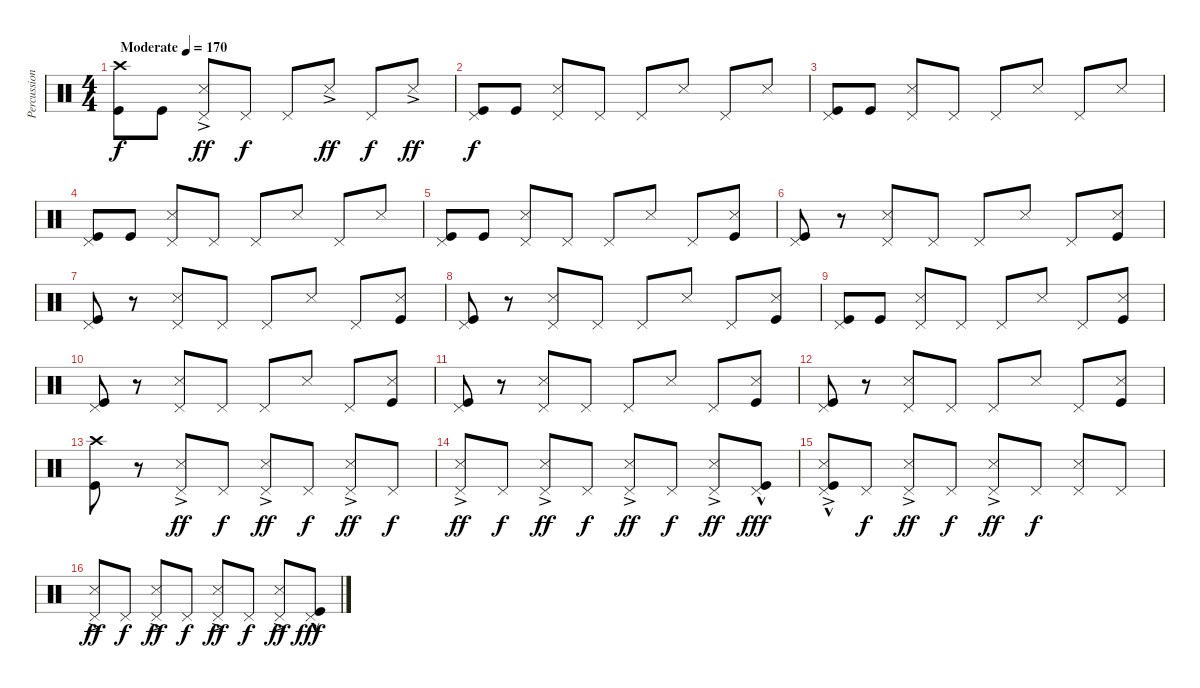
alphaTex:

\track ("Percussion" "Percussion") {instrument percussion}
\staff {score}
\articulation defaults
\ts (4 4)
\tempo (170 "Moderate")
\clef neutral
\ks c
("Crash high (hit)" "Kick (hit)").8{dy f} "Kick (hit)".8 ("Pedal Hi-Hat (hit)" "Snare (side stick) 3"{ac}).8{dy ff} "Pedal Hi-Hat (hit)".8{dy f} "Pedal Hi-Hat (hit)".8 "Snare (side stick) 3"{ac}.8{dy ff} "Pedal Hi-Hat (hit)".8{dy f} "Snare (side stick) 3"{ac}.8{dy ff} |
("Pedal Hi-Hat (hit)" "Kick (hit)").8{dy f} "Kick (hit)".8 ("Pedal Hi-Hat (hit)" "Snare (side stick) 3").8 "Pedal Hi-Hat (hit)".8 "Pedal Hi-Hat (hit)".8 "Snare (side stick) 3".8 "Pedal Hi-Hat (hit)".8 "Snare (side stick) 3".8 |
("Pedal Hi-Hat (hit)" "Kick (hit)").8 "Kick (hit)".8 ("Pedal Hi-Hat (hit)" "Snare (side stick) 3").8 "Pedal Hi-Hat (hit)".8 "Pedal Hi-Hat (hit)".8 "Snare (side stick) 3".8 "Pedal Hi-Hat (hit)".8 "Snare (side stick) 3".8 |
("Pedal Hi-Hat (hit)" "Kick (hit)").8 "Kick (hit)".8 ("Pedal Hi-Hat (hit)" "Snare (side stick) 3").8 "Pedal Hi-Hat (hit)".8 "Pedal Hi-Hat (hit)".8 "Snare (side stick) 3".8 "Pedal Hi-Hat (hit)".8 "Snare (side stick) 3".8 |
("Pedal Hi-Hat (hit)" "Kick (hit)").8 "Kick (hit)".8 ("Pedal Hi-Hat (hit)" "Snare (side stick) 3").8 "Pedal Hi-Hat (hit)".8 "Pedal Hi-Hat (hit)".8 "Snare (side stick) 3".8 "Pedal Hi-Hat (hit)".8 ("Snare (side stick) 3" "Kick (hit)").8 |
("Pedal Hi-Hat (hit)" "Kick (hit)").8 r.8 ("Pedal Hi-Hat (hit)" "Snare (side stick) 3").8 "Pedal Hi-Hat (hit)".8 "Pedal Hi-Hat (hit)".8 "Snare (side stick) 3".8 "Pedal Hi-Hat (hit)".8 ("Snare (side stick) 3" "Kick (hit)").8 |
("Pedal Hi-Hat (hit)" "Kick (hit)").8 r.8 ("Pedal Hi-Hat (hit)" "Snare (side stick) 3").8 "Pedal Hi-Hat (hit)".8 "Pedal Hi-Hat (hit)".8 "Snare (side stick) 3".8 "Pedal Hi-Hat (hit)".8 ("Snare (side stick) 3" "Kick (hit)").8 |
("Pedal Hi-Hat (hit)" "Kick (hit)").8 r.8 ("Pedal Hi-Hat (hit)" "Snare (side stick) 3").8 "Pedal Hi-Hat (hit)".8 "Pedal Hi-Hat (hit)".8 "Snare (side stick) 3".8 "Pedal Hi-Hat (hit)".8 ("Snare (side stick) 3" "Kick (hit)").8 |
("Pedal Hi-Hat (hit)" "Kick (hit)").8 "Kick (hit)".8 ("Pedal Hi-Hat (hit)" "Snare (side stick) 3").8 "Pedal Hi-Hat (hit)".8 "Pedal Hi-Hat (hit)".8 "Snare (side stick) 3".8 "Pedal Hi-Hat (hit)".8 ("Snare (side stick) 3" "Kick (hit)").8 |
("Pedal Hi-Hat (hit)" "Kick (hit)").8 r.8 ("Pedal Hi-Hat (hit)" "Snare (side stick) 3").8 "Pedal Hi-Hat (hit)".8 "Pedal Hi-Hat (hit)".8 "Snare (side stick) 3".8 "Pedal Hi-Hat (hit)".8 ("Snare (side stick) 3" "Kick (hit)").8 |
("Pedal Hi-Hat (hit)" "Kick (hit)").8 r.8 ("Pedal Hi-Hat (hit)" "Snare (side stick) 3").8 "Pedal Hi-Hat (hit)".8 "Pedal Hi-Hat (hit)".8 "Snare (side stick) 3".8 "Pedal Hi-Hat (hit)".8 ("Snare (side stick) 3" "Kick (hit)").8 |
("Pedal Hi-Hat (hit)" "Kick (hit)").8 r.8 ("Pedal Hi-Hat (hit)" "Snare (side stick) 3").8 "Pedal Hi-Hat (hit)".8 "Pedal Hi-Hat (hit)".8 "Snare (side stick) 3".8 "Pedal Hi-Hat (hit)".8 ("Snare (side stick) 3" "Kick (hit)").8 |
("Crash high (hit)" "Kick (hit)").8 r.8 ("Pedal Hi-Hat (hit)" "Snare (side stick) 3"{ac}).8{dy ff} "Pedal Hi-Hat (hit)".8{dy f} ("Pedal Hi-Hat (hit)" "Snare (side stick) 3"{ac}).8{dy ff} "Pedal Hi-Hat (hit)".8{dy f} ("Pedal Hi-Hat (hit)" "Snare (side stick) 3"{ac}).8{dy ff} "Pedal Hi-Hat (hit)".8{dy f} |
("Pedal Hi-Hat (hit)" "Snare (side stick) 3"{ac}).8{dy ff} "Pedal Hi-Hat (hit)".8{dy f} ("Pedal Hi-Hat (hit)" "Snare (side stick) 3"{ac}).8{dy ff} "Pedal Hi-Hat (hit)".8{dy f} ("Pedal Hi-Hat (hit)" "Snare (side stick) 3"{ac}).8{dy ff} "Pedal Hi-Hat (hit)".8{dy f} ("Pedal Hi-Hat (hit)" "Snare (side stick) 3"{ac}).8{dy ff} ("Pedal Hi-Hat (hit)" "Kick (hit)"{hac}).8{dy fff} |
("Pedal Hi-Hat (hit)" "Snare (side stick) 3"{ac} "Kick (hit)"{hac}).8 "Pedal Hi-Hat (hit)".8{dy f} ("Pedal Hi-Hat (hit)" "Snare (side stick) 3"{ac}).8{dy ff} "Pedal Hi-Hat (hit)".8{dy f} ("Pedal Hi-Hat (hit)" "Snare (side stick) 3"{ac}).8{dy ff} "Pedal Hi-Hat (hit)".8{dy f} ("Pedal Hi-Hat (hit)" "Snare (side stick) 3").8 "Pedal Hi-Hat (hit)".8 |
("Pedal Hi-Hat (hit)" "Snare (side stick) 3"{ac}).8{dy ff} "Pedal Hi-Hat (hit)".8{dy f} ("Pedal Hi-Hat (hit)" "Snare (side stick) 3"{ac}).8{dy ff} "Pedal Hi-Hat (hit)".8{dy f} ("Pedal Hi-Hat (hit)" "Snare (side stick) 3"{ac}).8{dy ff} "Pedal Hi-Hat (hit)".8{dy f} ("Pedal Hi-Hat (hit)" "Snare (side stick) 3"{ac}).8{dy ff} ("Pedal Hi-Hat (hit)" "Kick (hit)"{hac}).8{dy fff}
